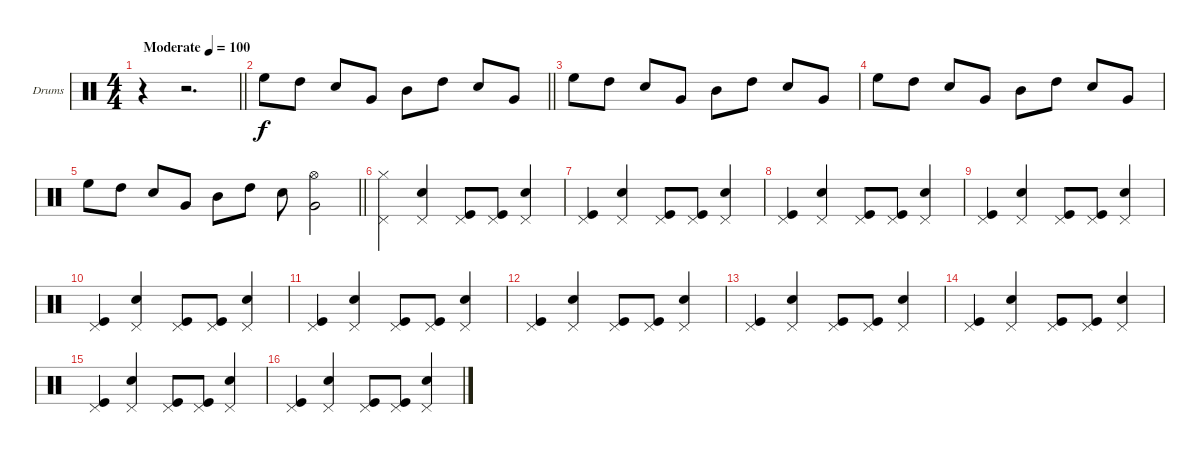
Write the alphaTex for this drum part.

\bracketExtendMode groupsimilarinstruments
\firstSystemTrackNameOrientation horizontal
\otherSystemsTrackNameOrientation horizontal
\track ("Drumkit" "Drums") {instrument percussion}
\staff {score}
\articulation defaults
\ts (4 4)
\beaming (8 2 2 2 2)
\tempo (100 "Moderate")
\clef neutral
\barLineRight lightlight
\ks c
r.4{dy f} r.2{d} |
\barLineRight lightlight "High Floor Tom (hit)".8 "High Tom (hit)".8 "Snare (hit) 2".8 "Very Low Tom (hit)".8 "Mid Tom (hit)".8 "High Tom (hit)".8 "Snare (hit) 2".8 "Very Low Tom (hit)".8
|
"High Floor Tom (hit)".8 "High Tom (hit)".8 "Snare (hit) 2".8 "Very Low Tom (hit)".8 "Mid Tom (hit)".8 "High Tom (hit)".8 "Snare (hit) 2".8 "Very Low Tom (hit)".8 |
"High Floor Tom (hit)".8 "High Tom (hit)".8 "Snare (hit) 2".8 "Very Low Tom (hit)".8 "Mid Tom (hit)".8 "High Tom (hit)".8 "Snare (hit) 2".8 "Very Low Tom (hit)".8 |
\barLineRight lightlight "High Floor Tom (hit)".8 "High Tom (hit)".8 "Snare (hit) 2".8 "Very Low Tom (hit)".8 "Mid Tom (hit)".8 "High Tom (hit)".8 "Snare (hit) 2".8
("Very Low Tom (hit)" "Hi-Hat (open)").2 |
("Pedal Hi-Hat (hit)" "Hi-Hat (closed)").4 ("Pedal Hi-Hat (hit)" "Snare (hit) 2").4 ("Pedal Hi-Hat (hit)" "Kick (hit)").8 ("Pedal Hi-Hat (hit)" "Kick (hit)").8 ("Pedal Hi-Hat (hit)" "Snare (hit) 2").4 |
("Pedal Hi-Hat (hit)" "Kick (hit)").4 ("Pedal Hi-Hat (hit)" "Snare (hit) 2").4 ("Pedal Hi-Hat (hit)" "Kick (hit)").8 ("Pedal Hi-Hat (hit)" "Kick (hit)").8 ("Pedal Hi-Hat (hit)" "Snare (hit) 2").4 |
("Pedal Hi-Hat (hit)" "Kick (hit)").4 ("Pedal Hi-Hat (hit)" "Snare (hit) 2").4 ("Pedal Hi-Hat (hit)" "Kick (hit)").8 ("Pedal Hi-Hat (hit)" "Kick (hit)").8 ("Pedal Hi-Hat (hit)" "Snare (hit) 2").4 |
("Pedal Hi-Hat (hit)" "Kick (hit)").4 ("Pedal Hi-Hat (hit)" "Snare (hit) 2").4 ("Pedal Hi-Hat (hit)" "Kick (hit)").8 ("Pedal Hi-Hat (hit)" "Kick (hit)").8 ("Pedal Hi-Hat (hit)" "Snare (hit) 2").4 |
("Pedal Hi-Hat (hit)" "Kick (hit)").4 ("Pedal Hi-Hat (hit)" "Snare (hit) 2").4 ("Pedal Hi-Hat (hit)" "Kick (hit)").8 ("Pedal Hi-Hat (hit)" "Kick (hit)").8 ("Pedal Hi-Hat (hit)" "Snare (hit) 2").4 |
("Pedal Hi-Hat (hit)" "Kick (hit)").4 ("Pedal Hi-Hat (hit)" "Snare (hit) 2").4 ("Pedal Hi-Hat (hit)" "Kick (hit)").8 ("Pedal Hi-Hat (hit)" "Kick (hit)").8 ("Pedal Hi-Hat (hit)" "Snare (hit) 2").4 |
("Pedal Hi-Hat (hit)" "Kick (hit)").4 ("Pedal Hi-Hat (hit)" "Snare (hit) 2").4 ("Pedal Hi-Hat (hit)" "Kick (hit)").8 ("Pedal Hi-Hat (hit)" "Kick (hit)").8 ("Pedal Hi-Hat (hit)" "Snare (hit) 2").4 |
("Pedal Hi-Hat (hit)" "Kick (hit)").4 ("Pedal Hi-Hat (hit)" "Snare (hit) 2").4 ("Pedal Hi-Hat (hit)" "Kick (hit)").8 ("Pedal Hi-Hat (hit)" "Kick (hit)").8 ("Pedal Hi-Hat (hit)" "Snare (hit) 2").4 |
("Pedal Hi-Hat (hit)" "Kick (hit)").4 ("Pedal Hi-Hat (hit)" "Snare (hit) 2").4 ("Pedal Hi-Hat (hit)" "Kick (hit)").8 ("Pedal Hi-Hat (hit)" "Kick (hit)").8 ("Pedal Hi-Hat (hit)" "Snare (hit) 2").4 |
("Pedal Hi-Hat (hit)" "Kick (hit)").4 ("Pedal Hi-Hat (hit)" "Snare (hit) 2").4 ("Pedal Hi-Hat (hit)" "Kick (hit)").8 ("Pedal Hi-Hat (hit)" "Kick (hit)").8 ("Pedal Hi-Hat (hit)" "Snare (hit) 2").4 |
("Pedal Hi-Hat (hit)" "Kick (hit)").4 ("Pedal Hi-Hat (hit)" "Snare (hit) 2").4 ("Pedal Hi-Hat (hit)" "Kick (hit)").8 ("Pedal Hi-Hat (hit)" "Kick (hit)").8 ("Pedal Hi-Hat (hit)" "Snare (hit) 2").4
